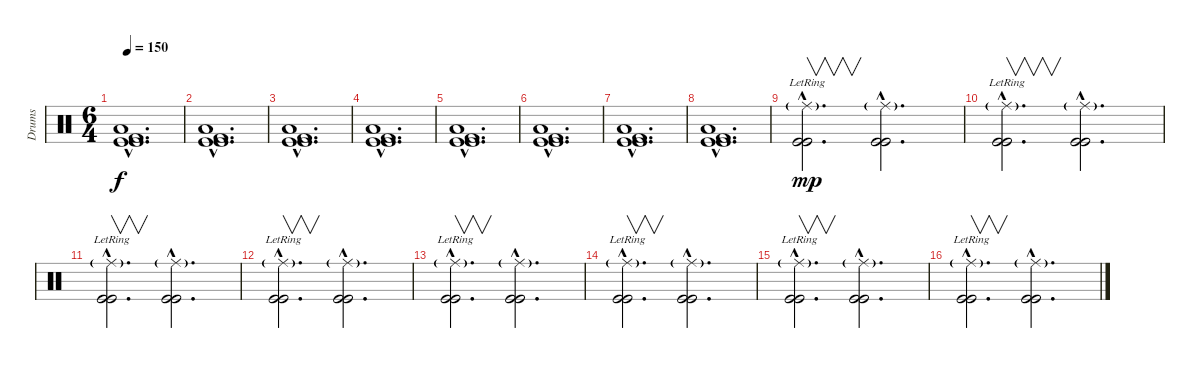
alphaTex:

\track ("Drums" "Drums") {instrument percussion}
\staff {score}
\articulation defaults
\ts (6 4)
\tempo 150
\clef neutral
\ks c
("Low Floor Tom (hit)"{hac} "Kick (hit)"{hac} "Kick (hit) 2"{hac} "Kick (hit)"{hac}).1{d dy f volume 9} |
("Low Floor Tom (hit)"{hac} "Kick (hit)"{hac} "Kick (hit) 2"{hac} "Kick (hit)"{hac}).1{d} |
("Low Floor Tom (hit)"{hac} "Kick (hit)"{hac} "Kick (hit) 2"{hac} "Kick (hit)"{hac}).1{d} |
("Low Floor Tom (hit)"{hac} "Kick (hit)"{hac} "Kick (hit) 2"{hac} "Kick (hit)"{hac}).1{d} |
("Low Floor Tom (hit)"{hac} "Kick (hit)"{hac} "Kick (hit) 2"{hac} "Kick (hit)"{hac}).1{d} |
("Low Floor Tom (hit)"{hac} "Kick (hit)"{hac} "Kick (hit) 2"{hac} "Kick (hit)"{hac}).1{d} |
("Low Floor Tom (hit)"{hac} "Kick (hit)"{hac} "Kick (hit) 2"{hac} "Kick (hit)"{hac}).1{d} |
("Low Floor Tom (hit)"{hac} "Kick (hit)"{hac} "Kick (hit) 2"{hac} "Kick (hit)"{hac}).1{d} |
("Kick (hit)"{hac} "Ride (middle)"{g hac lr} "Kick (hit)"{hac}).2{v d dy mp} ("Kick (hit)"{hac} "Kick (hit)"{hac} "Ride (middle)"{g hac}).2{d} |
("Kick (hit)"{hac} "Ride (middle)"{g hac lr} "Kick (hit)"{hac}).2{v d} ("Kick (hit)"{hac} "Kick (hit)"{hac} "Ride (middle)"{g hac}).2{d} |
("Kick (hit)"{hac} "Ride (middle)"{g hac lr} "Kick (hit)"{hac}).2{v d} ("Kick (hit)"{hac} "Kick (hit)"{hac} "Ride (middle)"{g hac}).2{d} |
("Kick (hit)"{hac} "Ride (middle)"{g hac lr} "Kick (hit)"{hac}).2{v d} ("Kick (hit)"{hac} "Kick (hit)"{hac} "Ride (middle)"{g hac}).2{d} |
("Kick (hit)"{hac} "Ride (middle)"{g hac lr} "Kick (hit)"{hac}).2{v d} ("Kick (hit)"{hac} "Kick (hit)"{hac} "Ride (middle)"{g hac}).2{d} |
("Kick (hit)"{hac} "Ride (middle)"{g hac lr} "Kick (hit)"{hac}).2{v d} ("Kick (hit)"{hac} "Kick (hit)"{hac} "Ride (middle)"{g hac}).2{d} |
("Kick (hit)"{hac} "Ride (middle)"{g hac lr} "Kick (hit)"{hac}).2{v d} ("Kick (hit)"{hac} "Kick (hit)"{hac} "Ride (middle)"{g hac}).2{d} |
("Kick (hit)"{hac} "Ride (middle)"{g hac lr} "Kick (hit)"{hac}).2{v d} ("Kick (hit)"{hac} "Kick (hit)"{hac} "Ride (middle)"{g hac}).2{d}
